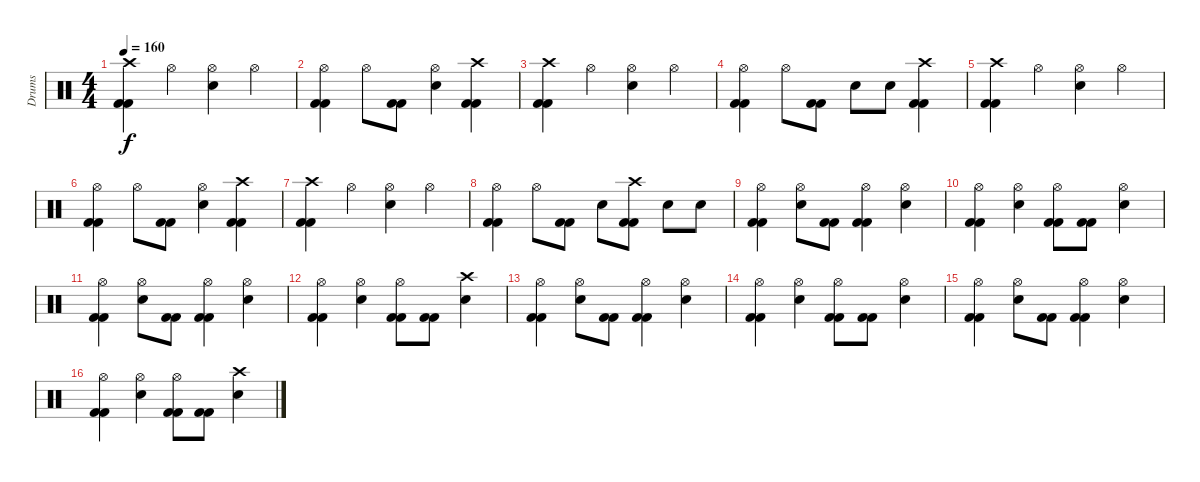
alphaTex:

\track ("Drums" "Drums") {instrument percussion}
\staff {score}
\articulation defaults
\ts (4 4)
\tempo 160
\clef neutral
\ks c
("Crash high (hit)" "Kick (hit) 2" "Kick (hit) 2").4{dy f} "Hi-Hat (open)".4 ("Electric Snare (hit)" "Hi-Hat (open)").4 "Hi-Hat (open)".4 |
("Hi-Hat (open)" "Kick (hit) 2" "Kick (hit) 2").4 "Hi-Hat (open)".8 ("Kick (hit) 2" "Kick (hit) 2").8 ("Hi-Hat (open)" "Electric Snare (hit)").4 ("Kick (hit) 2" "Kick (hit) 2" "Crash high (hit)").4 |
("Crash high (hit)" "Kick (hit) 2" "Kick (hit) 2").4 "Hi-Hat (open)".4 ("Electric Snare (hit)" "Hi-Hat (open)").4 "Hi-Hat (open)".4 |
("Hi-Hat (open)" "Kick (hit) 2" "Kick (hit) 2").4 "Hi-Hat (open)".8 ("Kick (hit) 2" "Kick (hit) 2").8 "Electric Snare (hit)".8 "Electric Snare (hit)".8 ("Crash high (hit)" "Kick (hit) 2" "Kick (hit) 2").4 |
("Crash high (hit)" "Kick (hit) 2" "Kick (hit) 2").4 "Hi-Hat (open)".4 ("Electric Snare (hit)" "Hi-Hat (open)").4 "Hi-Hat (open)".4 |
("Hi-Hat (open)" "Kick (hit) 2" "Kick (hit) 2").4 "Hi-Hat (open)".8 ("Kick (hit) 2" "Kick (hit) 2").8 ("Hi-Hat (open)" "Electric Snare (hit)").4 ("Kick (hit) 2" "Kick (hit) 2" "Crash high (hit)").4 |
("Crash high (hit)" "Kick (hit) 2" "Kick (hit) 2").4 "Hi-Hat (open)".4 ("Electric Snare (hit)" "Hi-Hat (open)").4 "Hi-Hat (open)".4 |
("Hi-Hat (open)" "Kick (hit) 2" "Kick (hit) 2").4 "Hi-Hat (open)".8 ("Kick (hit) 2" "Kick (hit) 2").8 "Electric Snare (hit)".8 ("Crash high (hit)" "Kick (hit) 2" "Kick (hit) 2").8 "Electric Snare (hit)".8 "Electric Snare (hit)".8 |
("Hi-Hat (open)" "Kick (hit) 2" "Kick (hit) 2").4 ("Electric Snare (hit)" "Hi-Hat (open)").8 ("Kick (hit) 2" "Kick (hit) 2").8 ("Hi-Hat (open)" "Kick (hit) 2" "Kick (hit) 2").4 ("Electric Snare (hit)" "Hi-Hat (open)").4 |
("Hi-Hat (open)" "Kick (hit) 2" "Kick (hit) 2").4 ("Electric Snare (hit)" "Hi-Hat (open)").4 ("Hi-Hat (open)" "Kick (hit) 2" "Kick (hit) 2").8 ("Kick (hit) 2" "Kick (hit) 2").8 ("Hi-Hat (open)" "Electric Snare (hit)").4 |
("Hi-Hat (open)" "Kick (hit) 2" "Kick (hit) 2").4 ("Electric Snare (hit)" "Hi-Hat (open)").8 ("Kick (hit) 2" "Kick (hit) 2").8 ("Hi-Hat (open)" "Kick (hit) 2" "Kick (hit) 2").4 ("Electric Snare (hit)" "Hi-Hat (open)").4 |
("Hi-Hat (open)" "Kick (hit) 2" "Kick (hit) 2").4 ("Electric Snare (hit)" "Hi-Hat (open)").4 ("Hi-Hat (open)" "Kick (hit) 2" "Kick (hit) 2").8 ("Kick (hit) 2" "Kick (hit) 2").8 ("Crash high (hit)" "Electric Snare (hit)").4 |
("Hi-Hat (open)" "Kick (hit) 2" "Kick (hit) 2").4 ("Electric Snare (hit)" "Hi-Hat (open)").8 ("Kick (hit) 2" "Kick (hit) 2").8 ("Hi-Hat (open)" "Kick (hit) 2" "Kick (hit) 2").4 ("Electric Snare (hit)" "Hi-Hat (open)").4 |
("Hi-Hat (open)" "Kick (hit) 2" "Kick (hit) 2").4 ("Electric Snare (hit)" "Hi-Hat (open)").4 ("Hi-Hat (open)" "Kick (hit) 2" "Kick (hit) 2").8 ("Kick (hit) 2" "Kick (hit) 2").8 ("Hi-Hat (open)" "Electric Snare (hit)").4 |
("Hi-Hat (open)" "Kick (hit) 2" "Kick (hit) 2").4 ("Electric Snare (hit)" "Hi-Hat (open)").8 ("Kick (hit) 2" "Kick (hit) 2").8 ("Hi-Hat (open)" "Kick (hit) 2" "Kick (hit) 2").4 ("Electric Snare (hit)" "Hi-Hat (open)").4 |
("Hi-Hat (open)" "Kick (hit) 2" "Kick (hit) 2").4 ("Electric Snare (hit)" "Hi-Hat (open)").4 ("Hi-Hat (open)" "Kick (hit) 2" "Kick (hit) 2").8 ("Kick (hit) 2" "Kick (hit) 2").8 ("Crash high (hit)" "Electric Snare (hit)").4
